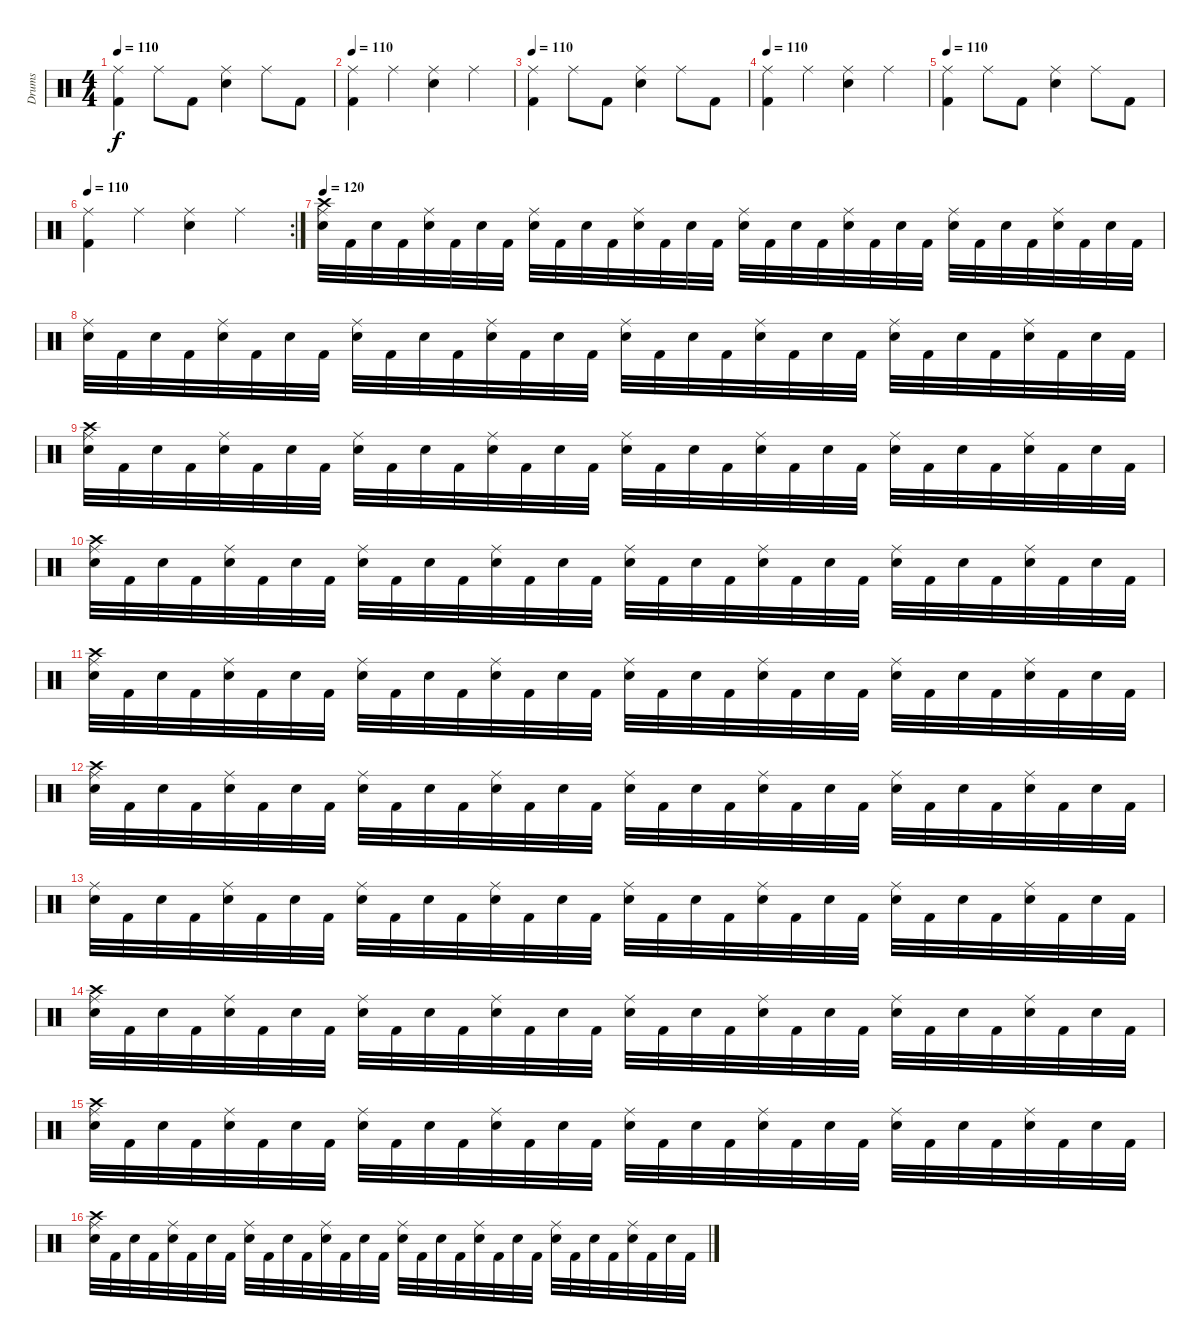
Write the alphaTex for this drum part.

\track ("Drums" "Drums") {instrument percussion}
\staff {score}
\articulation defaults
\ts (4 4)
\tempo 110
\clef neutral
\ks c
("Ride (middle)" "Kick (hit) 2").4{dy f} "Ride (middle)".8 "Kick (hit) 2".8 ("Ride (middle)" "Electric Snare (hit)").4 "Ride (middle)".8 "Kick (hit) 2".8 |
\tempo 110
("Ride (middle)" "Kick (hit) 2").4 "Ride (middle)".4 ("Ride (middle)" "Electric Snare (hit)").4 "Ride (middle)".4 |
\tempo 110
("Ride (middle)" "Kick (hit) 2").4 "Ride (middle)".8 "Kick (hit) 2".8 ("Ride (middle)" "Electric Snare (hit)").4 "Ride (middle)".8 "Kick (hit) 2".8 |
\tempo 110
("Ride (middle)" "Kick (hit) 2").4 "Ride (middle)".4 ("Ride (middle)" "Electric Snare (hit)").4 "Ride (middle)".4 |
\tempo 110
("Ride (middle)" "Kick (hit) 2").4 "Ride (middle)".8 "Kick (hit) 2".8 ("Ride (middle)" "Electric Snare (hit)").4 "Ride (middle)".8 "Kick (hit) 2".8 |
\rc 2
\tempo 110
("Ride (middle)" "Kick (hit) 2").4 "Ride (middle)".4 ("Ride (middle)" "Electric Snare (hit)").4 "Ride (middle)".4 |
\tempo 120
("Crash high (hit)" "Electric Snare (hit)" "Ride (middle)").32 "Kick (hit) 2".32 "Electric Snare (hit)".32 "Kick (hit) 2".32 ("Electric Snare (hit)" "Ride (middle)").32 "Kick (hit) 2".32 "Electric Snare (hit)".32 "Kick (hit) 2".32 ("Electric Snare (hit)" "Ride (middle)").32 "Kick (hit) 2".32 "Electric Snare (hit)".32 "Kick (hit) 2".32 ("Electric Snare (hit)" "Ride (middle)").32 "Kick (hit) 2".32 "Electric Snare (hit)".32 "Kick (hit) 2".32 ("Electric Snare (hit)" "Ride (middle)").32 "Kick (hit) 2".32 "Electric Snare (hit)".32 "Kick (hit) 2".32 ("Electric Snare (hit)" "Ride (middle)").32 "Kick (hit) 2".32 "Electric Snare (hit)".32 "Kick (hit) 2".32 ("Electric Snare (hit)" "Ride (middle)").32 "Kick (hit) 2".32 "Electric Snare (hit)".32 "Kick (hit) 2".32 ("Electric Snare (hit)" "Ride (middle)").32 "Kick (hit) 2".32 "Electric Snare (hit)".32 "Kick (hit) 2".32 |
("Electric Snare (hit)" "Ride (middle)").32 "Kick (hit) 2".32 "Electric Snare (hit)".32 "Kick (hit) 2".32 ("Electric Snare (hit)" "Ride (middle)").32 "Kick (hit) 2".32 "Electric Snare (hit)".32 "Kick (hit) 2".32 ("Electric Snare (hit)" "Ride (middle)").32 "Kick (hit) 2".32 "Electric Snare (hit)".32 "Kick (hit) 2".32 ("Electric Snare (hit)" "Ride (middle)").32 "Kick (hit) 2".32 "Electric Snare (hit)".32 "Kick (hit) 2".32 ("Electric Snare (hit)" "Ride (middle)").32 "Kick (hit) 2".32 "Electric Snare (hit)".32 "Kick (hit) 2".32 ("Electric Snare (hit)" "Ride (middle)").32 "Kick (hit) 2".32 "Electric Snare (hit)".32 "Kick (hit) 2".32 ("Electric Snare (hit)" "Ride (middle)").32 "Kick (hit) 2".32 "Electric Snare (hit)".32 "Kick (hit) 2".32 ("Electric Snare (hit)" "Ride (middle)").32 "Kick (hit) 2".32 "Electric Snare (hit)".32 "Kick (hit) 2".32 |
("Crash high (hit)" "Electric Snare (hit)" "Ride (middle)").32 "Kick (hit) 2".32 "Electric Snare (hit)".32 "Kick (hit) 2".32 ("Electric Snare (hit)" "Ride (middle)").32 "Kick (hit) 2".32 "Electric Snare (hit)".32 "Kick (hit) 2".32 ("Electric Snare (hit)" "Ride (middle)").32 "Kick (hit) 2".32 "Electric Snare (hit)".32 "Kick (hit) 2".32 ("Electric Snare (hit)" "Ride (middle)").32 "Kick (hit) 2".32 "Electric Snare (hit)".32 "Kick (hit) 2".32 ("Electric Snare (hit)" "Ride (middle)").32 "Kick (hit) 2".32 "Electric Snare (hit)".32 "Kick (hit) 2".32 ("Electric Snare (hit)" "Ride (middle)").32 "Kick (hit) 2".32 "Electric Snare (hit)".32 "Kick (hit) 2".32 ("Electric Snare (hit)" "Ride (middle)").32 "Kick (hit) 2".32 "Electric Snare (hit)".32 "Kick (hit) 2".32 ("Electric Snare (hit)" "Ride (middle)").32 "Kick (hit) 2".32 "Electric Snare (hit)".32 "Kick (hit) 2".32 |
("Crash high (hit)" "Electric Snare (hit)" "Ride (middle)").32 "Kick (hit) 2".32 "Electric Snare (hit)".32 "Kick (hit) 2".32 ("Electric Snare (hit)" "Ride (middle)").32 "Kick (hit) 2".32 "Electric Snare (hit)".32 "Kick (hit) 2".32 ("Electric Snare (hit)" "Ride (middle)").32 "Kick (hit) 2".32 "Electric Snare (hit)".32 "Kick (hit) 2".32 ("Electric Snare (hit)" "Ride (middle)").32 "Kick (hit) 2".32 "Electric Snare (hit)".32 "Kick (hit) 2".32 ("Electric Snare (hit)" "Ride (middle)").32 "Kick (hit) 2".32 "Electric Snare (hit)".32 "Kick (hit) 2".32 ("Electric Snare (hit)" "Ride (middle)").32 "Kick (hit) 2".32 "Electric Snare (hit)".32 "Kick (hit) 2".32 ("Electric Snare (hit)" "Ride (middle)").32 "Kick (hit) 2".32 "Electric Snare (hit)".32 "Kick (hit) 2".32 ("Electric Snare (hit)" "Ride (middle)").32 "Kick (hit) 2".32 "Electric Snare (hit)".32 "Kick (hit) 2".32 |
("Crash high (hit)" "Electric Snare (hit)" "Ride (middle)").32 "Kick (hit) 2".32 "Electric Snare (hit)".32 "Kick (hit) 2".32 ("Electric Snare (hit)" "Ride (middle)").32 "Kick (hit) 2".32 "Electric Snare (hit)".32 "Kick (hit) 2".32 ("Electric Snare (hit)" "Ride (middle)").32 "Kick (hit) 2".32 "Electric Snare (hit)".32 "Kick (hit) 2".32 ("Electric Snare (hit)" "Ride (middle)").32 "Kick (hit) 2".32 "Electric Snare (hit)".32 "Kick (hit) 2".32 ("Electric Snare (hit)" "Ride (middle)").32 "Kick (hit) 2".32 "Electric Snare (hit)".32 "Kick (hit) 2".32 ("Electric Snare (hit)" "Ride (middle)").32 "Kick (hit) 2".32 "Electric Snare (hit)".32 "Kick (hit) 2".32 ("Electric Snare (hit)" "Ride (middle)").32 "Kick (hit) 2".32 "Electric Snare (hit)".32 "Kick (hit) 2".32 ("Electric Snare (hit)" "Ride (middle)").32 "Kick (hit) 2".32 "Electric Snare (hit)".32 "Kick (hit) 2".32 |
("Crash high (hit)" "Electric Snare (hit)" "Ride (middle)").32 "Kick (hit) 2".32 "Electric Snare (hit)".32 "Kick (hit) 2".32 ("Electric Snare (hit)" "Ride (middle)").32 "Kick (hit) 2".32 "Electric Snare (hit)".32 "Kick (hit) 2".32 ("Electric Snare (hit)" "Ride (middle)").32 "Kick (hit) 2".32 "Electric Snare (hit)".32 "Kick (hit) 2".32 ("Electric Snare (hit)" "Ride (middle)").32 "Kick (hit) 2".32 "Electric Snare (hit)".32 "Kick (hit) 2".32 ("Electric Snare (hit)" "Ride (middle)").32 "Kick (hit) 2".32 "Electric Snare (hit)".32 "Kick (hit) 2".32 ("Electric Snare (hit)" "Ride (middle)").32 "Kick (hit) 2".32 "Electric Snare (hit)".32 "Kick (hit) 2".32 ("Electric Snare (hit)" "Ride (middle)").32 "Kick (hit) 2".32 "Electric Snare (hit)".32 "Kick (hit) 2".32 ("Electric Snare (hit)" "Ride (middle)").32 "Kick (hit) 2".32 "Electric Snare (hit)".32 "Kick (hit) 2".32 |
("Electric Snare (hit)" "Ride (middle)").32 "Kick (hit) 2".32 "Electric Snare (hit)".32 "Kick (hit) 2".32 ("Electric Snare (hit)" "Ride (middle)").32 "Kick (hit) 2".32 "Electric Snare (hit)".32 "Kick (hit) 2".32 ("Electric Snare (hit)" "Ride (middle)").32 "Kick (hit) 2".32 "Electric Snare (hit)".32 "Kick (hit) 2".32 ("Electric Snare (hit)" "Ride (middle)").32 "Kick (hit) 2".32 "Electric Snare (hit)".32 "Kick (hit) 2".32 ("Electric Snare (hit)" "Ride (middle)").32 "Kick (hit) 2".32 "Electric Snare (hit)".32 "Kick (hit) 2".32 ("Electric Snare (hit)" "Ride (middle)").32 "Kick (hit) 2".32 "Electric Snare (hit)".32 "Kick (hit) 2".32 ("Electric Snare (hit)" "Ride (middle)").32 "Kick (hit) 2".32 "Electric Snare (hit)".32 "Kick (hit) 2".32 ("Electric Snare (hit)" "Ride (middle)").32 "Kick (hit) 2".32 "Electric Snare (hit)".32 "Kick (hit) 2".32 |
("Crash high (hit)" "Electric Snare (hit)" "Ride (middle)").32 "Kick (hit) 2".32 "Electric Snare (hit)".32 "Kick (hit) 2".32 ("Electric Snare (hit)" "Ride (middle)").32 "Kick (hit) 2".32 "Electric Snare (hit)".32 "Kick (hit) 2".32 ("Electric Snare (hit)" "Ride (middle)").32 "Kick (hit) 2".32 "Electric Snare (hit)".32 "Kick (hit) 2".32 ("Electric Snare (hit)" "Ride (middle)").32 "Kick (hit) 2".32 "Electric Snare (hit)".32 "Kick (hit) 2".32 ("Electric Snare (hit)" "Ride (middle)").32 "Kick (hit) 2".32 "Electric Snare (hit)".32 "Kick (hit) 2".32 ("Electric Snare (hit)" "Ride (middle)").32 "Kick (hit) 2".32 "Electric Snare (hit)".32 "Kick (hit) 2".32 ("Electric Snare (hit)" "Ride (middle)").32 "Kick (hit) 2".32 "Electric Snare (hit)".32 "Kick (hit) 2".32 ("Electric Snare (hit)" "Ride (middle)").32 "Kick (hit) 2".32 "Electric Snare (hit)".32 "Kick (hit) 2".32 |
("Crash high (hit)" "Electric Snare (hit)" "Ride (middle)").32 "Kick (hit) 2".32 "Electric Snare (hit)".32 "Kick (hit) 2".32 ("Electric Snare (hit)" "Ride (middle)").32 "Kick (hit) 2".32 "Electric Snare (hit)".32 "Kick (hit) 2".32 ("Electric Snare (hit)" "Ride (middle)").32 "Kick (hit) 2".32 "Electric Snare (hit)".32 "Kick (hit) 2".32 ("Electric Snare (hit)" "Ride (middle)").32 "Kick (hit) 2".32 "Electric Snare (hit)".32 "Kick (hit) 2".32 ("Electric Snare (hit)" "Ride (middle)").32 "Kick (hit) 2".32 "Electric Snare (hit)".32 "Kick (hit) 2".32 ("Electric Snare (hit)" "Ride (middle)").32 "Kick (hit) 2".32 "Electric Snare (hit)".32 "Kick (hit) 2".32 ("Electric Snare (hit)" "Ride (middle)").32 "Kick (hit) 2".32 "Electric Snare (hit)".32 "Kick (hit) 2".32 ("Electric Snare (hit)" "Ride (middle)").32 "Kick (hit) 2".32 "Electric Snare (hit)".32 "Kick (hit) 2".32 |
("Crash high (hit)" "Electric Snare (hit)" "Ride (middle)").32 "Kick (hit) 2".32 "Electric Snare (hit)".32 "Kick (hit) 2".32 ("Electric Snare (hit)" "Ride (middle)").32 "Kick (hit) 2".32 "Electric Snare (hit)".32 "Kick (hit) 2".32 ("Electric Snare (hit)" "Ride (middle)").32 "Kick (hit) 2".32 "Electric Snare (hit)".32 "Kick (hit) 2".32 ("Electric Snare (hit)" "Ride (middle)").32 "Kick (hit) 2".32 "Electric Snare (hit)".32 "Kick (hit) 2".32 ("Electric Snare (hit)" "Ride (middle)").32 "Kick (hit) 2".32 "Electric Snare (hit)".32 "Kick (hit) 2".32 ("Electric Snare (hit)" "Ride (middle)").32 "Kick (hit) 2".32 "Electric Snare (hit)".32 "Kick (hit) 2".32 ("Electric Snare (hit)" "Ride (middle)").32 "Kick (hit) 2".32 "Electric Snare (hit)".32 "Kick (hit) 2".32 ("Electric Snare (hit)" "Ride (middle)").32 "Kick (hit) 2".32 "Electric Snare (hit)".32 "Kick (hit) 2".32
